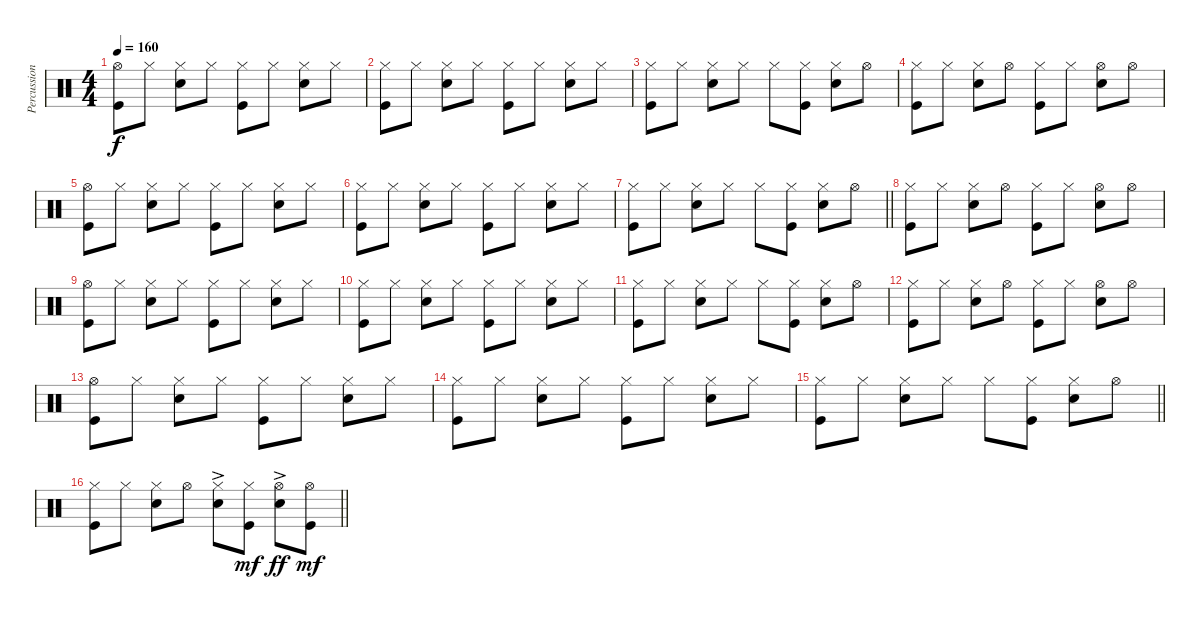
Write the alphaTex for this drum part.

\track ("Percussioni" "Percussion") {instrument percussion}
\staff {score}
\articulation defaults
\ts (4 4)
\tempo 160
\clef neutral
\ks c
("Hi-Hat (open)" "Kick (hit)").8{dy f} "Hi-Hat (closed)".8 ("Hi-Hat (closed)" "Snare (hit) 2").8 "Hi-Hat (closed)".8 ("Hi-Hat (closed)" "Kick (hit)").8 "Hi-Hat (closed)".8 ("Hi-Hat (closed)" "Snare (hit) 2").8 "Hi-Hat (closed)".8 |
("Hi-Hat (closed)" "Kick (hit)").8 "Hi-Hat (closed)".8 ("Hi-Hat (closed)" "Snare (hit) 2").8 "Hi-Hat (closed)".8 ("Hi-Hat (closed)" "Kick (hit)").8 "Hi-Hat (closed)".8 ("Hi-Hat (closed)" "Snare (hit) 2").8 "Hi-Hat (closed)".8 |
("Hi-Hat (closed)" "Kick (hit)").8 "Hi-Hat (closed)".8 ("Hi-Hat (closed)" "Snare (hit) 2").8 "Hi-Hat (closed)".8 "Hi-Hat (closed)".8 ("Hi-Hat (closed)" "Kick (hit)").8 ("Hi-Hat (closed)" "Snare (hit) 2").8 "Hi-Hat (open)".8 |
("Hi-Hat (closed)" "Kick (hit)").8 "Hi-Hat (closed)".8 ("Hi-Hat (closed)" "Snare (hit) 2").8 "Hi-Hat (open)".8 ("Hi-Hat (closed)" "Kick (hit)").8 "Hi-Hat (closed)".8 ("Hi-Hat (open)" "Snare (hit) 2").8 "Hi-Hat (open)".8 |
("Hi-Hat (open)" "Kick (hit)").8 "Hi-Hat (closed)".8 ("Hi-Hat (closed)" "Snare (hit) 2").8 "Hi-Hat (closed)".8 ("Hi-Hat (closed)" "Kick (hit)").8 "Hi-Hat (closed)".8 ("Hi-Hat (closed)" "Snare (hit) 2").8 "Hi-Hat (closed)".8 |
("Hi-Hat (closed)" "Kick (hit)").8 "Hi-Hat (closed)".8 ("Hi-Hat (closed)" "Snare (hit) 2").8 "Hi-Hat (closed)".8 ("Hi-Hat (closed)" "Kick (hit)").8 "Hi-Hat (closed)".8 ("Hi-Hat (closed)" "Snare (hit) 2").8 "Hi-Hat (closed)".8 |
\barLineRight lightlight
("Hi-Hat (closed)" "Kick (hit)").8 "Hi-Hat (closed)".8 ("Hi-Hat (closed)" "Snare (hit) 2").8 "Hi-Hat (closed)".8 "Hi-Hat (closed)".8 ("Hi-Hat (closed)" "Kick (hit)").8 ("Hi-Hat (closed)" "Snare (hit) 2").8 "Hi-Hat (open)".8 |
("Hi-Hat (closed)" "Kick (hit)").8 "Hi-Hat (closed)".8 ("Hi-Hat (closed)" "Snare (hit) 2").8 "Hi-Hat (open)".8 ("Hi-Hat (closed)" "Kick (hit)").8 "Hi-Hat (closed)".8 ("Hi-Hat (open)" "Snare (hit) 2").8 "Hi-Hat (open)".8 |
("Hi-Hat (open)" "Kick (hit)").8 "Hi-Hat (closed)".8 ("Hi-Hat (closed)" "Snare (hit) 2").8 "Hi-Hat (closed)".8 ("Hi-Hat (closed)" "Kick (hit)").8 "Hi-Hat (closed)".8 ("Hi-Hat (closed)" "Snare (hit) 2").8 "Hi-Hat (closed)".8 |
("Hi-Hat (closed)" "Kick (hit)").8 "Hi-Hat (closed)".8 ("Hi-Hat (closed)" "Snare (hit) 2").8 "Hi-Hat (closed)".8 ("Hi-Hat (closed)" "Kick (hit)").8 "Hi-Hat (closed)".8 ("Hi-Hat (closed)" "Snare (hit) 2").8 "Hi-Hat (closed)".8 |
("Hi-Hat (closed)" "Kick (hit)").8 "Hi-Hat (closed)".8 ("Hi-Hat (closed)" "Snare (hit) 2").8 "Hi-Hat (closed)".8 "Hi-Hat (closed)".8 ("Hi-Hat (closed)" "Kick (hit)").8 ("Hi-Hat (closed)" "Snare (hit) 2").8 "Hi-Hat (open)".8 |
("Hi-Hat (closed)" "Kick (hit)").8 "Hi-Hat (closed)".8 ("Hi-Hat (closed)" "Snare (hit) 2").8 "Hi-Hat (open)".8 ("Hi-Hat (closed)" "Kick (hit)").8 "Hi-Hat (closed)".8 ("Hi-Hat (open)" "Snare (hit) 2").8 "Hi-Hat (open)".8 |
("Hi-Hat (open)" "Kick (hit)").8 "Hi-Hat (closed)".8 ("Hi-Hat (closed)" "Snare (hit) 2").8 "Hi-Hat (closed)".8 ("Hi-Hat (closed)" "Kick (hit)").8 "Hi-Hat (closed)".8 ("Hi-Hat (closed)" "Snare (hit) 2").8 "Hi-Hat (closed)".8 |
("Hi-Hat (closed)" "Kick (hit)").8 "Hi-Hat (closed)".8 ("Hi-Hat (closed)" "Snare (hit) 2").8 "Hi-Hat (closed)".8 ("Hi-Hat (closed)" "Kick (hit)").8 "Hi-Hat (closed)".8 ("Hi-Hat (closed)" "Snare (hit) 2").8 "Hi-Hat (closed)".8 |
\barLineRight lightlight
("Hi-Hat (closed)" "Kick (hit)").8 "Hi-Hat (closed)".8 ("Hi-Hat (closed)" "Snare (hit) 2").8 "Hi-Hat (closed)".8 "Hi-Hat (closed)".8 ("Hi-Hat (closed)" "Kick (hit)").8 ("Hi-Hat (closed)" "Snare (hit) 2").8 "Hi-Hat (open)".8 |
\barLineRight lightlight
("Hi-Hat (closed)" "Kick (hit)").8 "Hi-Hat (closed)".8 ("Hi-Hat (closed)" "Snare (hit) 2").8 "Hi-Hat (open)".8 ("Hi-Hat (closed)" "Snare (hit) 2"{ac}).8 ("Hi-Hat (closed)" "Kick (hit)").8{dy mf} ("Hi-Hat (open)" "Snare (hit) 2"{ac}).8{dy ff} ("Hi-Hat (open)" "Kick (hit)").8{dy mf}
